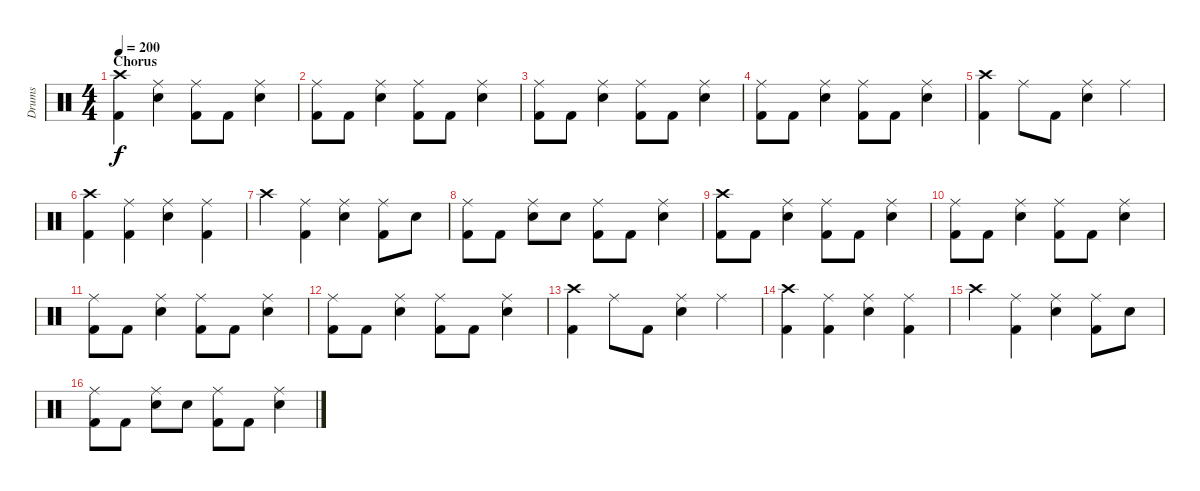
\track ("Drums" "Drums") {instrument percussion}
\staff {score}
\articulation defaults
\ts (4 4)
\section ("" "Chorus")
\tempo 200
\clef neutral
\ks c
("Crash high (hit)" "Kick (hit) 2").4{dy f} ("Ride (middle)" "Electric Snare (hit)").4 ("Ride (middle)" "Kick (hit) 2").8 "Kick (hit) 2".8 ("Ride (middle)" "Electric Snare (hit)").4 |
("Ride (middle)" "Kick (hit) 2").8 "Kick (hit) 2".8 ("Ride (middle)" "Electric Snare (hit)").4 ("Ride (middle)" "Kick (hit) 2").8 "Kick (hit) 2".8 ("Ride (middle)" "Electric Snare (hit)").4 |
("Ride (middle)" "Kick (hit) 2").8 "Kick (hit) 2".8 ("Ride (middle)" "Electric Snare (hit)").4 ("Ride (middle)" "Kick (hit) 2").8 "Kick (hit) 2".8 ("Ride (middle)" "Electric Snare (hit)").4 |
("Ride (middle)" "Kick (hit) 2").8 "Kick (hit) 2".8 ("Ride (middle)" "Electric Snare (hit)").4 ("Ride (middle)" "Kick (hit) 2").8 "Kick (hit) 2".8 ("Ride (middle)" "Electric Snare (hit)").4 |
("Crash high (hit)" "Kick (hit) 2").4 "Ride (middle)".8 "Kick (hit) 2".8 ("Ride (middle)" "Electric Snare (hit)").4 "Ride (middle)".4 |
("Crash high (hit)" "Kick (hit) 2").4 ("Ride (middle)" "Kick (hit) 2").4 ("Ride (middle)" "Electric Snare (hit)").4 ("Ride (middle)" "Kick (hit) 2").4 |
"Crash high (hit)".4 ("Ride (middle)" "Kick (hit) 2").4 ("Ride (middle)" "Electric Snare (hit)").4 ("Ride (middle)" "Kick (hit) 2").8 "Electric Snare (hit)".8 |
("Ride (middle)" "Kick (hit) 2").8 "Kick (hit) 2".8 ("Ride (middle)" "Electric Snare (hit)").8 "Electric Snare (hit)".8 ("Ride (middle)" "Kick (hit) 2").8 "Kick (hit) 2".8 ("Ride (middle)" "Electric Snare (hit)").4 |
("Crash high (hit)" "Kick (hit) 2").8 "Kick (hit) 2".8 ("Ride (middle)" "Electric Snare (hit)").4 ("Ride (middle)" "Kick (hit) 2").8 "Kick (hit) 2".8 ("Ride (middle)" "Electric Snare (hit)").4 |
("Ride (middle)" "Kick (hit) 2").8 "Kick (hit) 2".8 ("Ride (middle)" "Electric Snare (hit)").4 ("Ride (middle)" "Kick (hit) 2").8 "Kick (hit) 2".8 ("Ride (middle)" "Electric Snare (hit)").4 |
("Ride (middle)" "Kick (hit) 2").8 "Kick (hit) 2".8 ("Ride (middle)" "Electric Snare (hit)").4 ("Ride (middle)" "Kick (hit) 2").8 "Kick (hit) 2".8 ("Ride (middle)" "Electric Snare (hit)").4 |
("Ride (middle)" "Kick (hit) 2").8 "Kick (hit) 2".8 ("Ride (middle)" "Electric Snare (hit)").4 ("Ride (middle)" "Kick (hit) 2").8 "Kick (hit) 2".8 ("Ride (middle)" "Electric Snare (hit)").4 |
("Crash high (hit)" "Kick (hit) 2").4 "Ride (middle)".8 "Kick (hit) 2".8 ("Ride (middle)" "Electric Snare (hit)").4 "Ride (middle)".4 |
("Crash high (hit)" "Kick (hit) 2").4 ("Ride (middle)" "Kick (hit) 2").4 ("Ride (middle)" "Electric Snare (hit)").4 ("Ride (middle)" "Kick (hit) 2").4 |
"Crash high (hit)".4 ("Ride (middle)" "Kick (hit) 2").4 ("Ride (middle)" "Electric Snare (hit)").4 ("Ride (middle)" "Kick (hit) 2").8 "Electric Snare (hit)".8 |
("Ride (middle)" "Kick (hit) 2").8 "Kick (hit) 2".8 ("Ride (middle)" "Electric Snare (hit)").8 "Electric Snare (hit)".8 ("Ride (middle)" "Kick (hit) 2").8 "Kick (hit) 2".8 ("Ride (middle)" "Electric Snare (hit)").4
